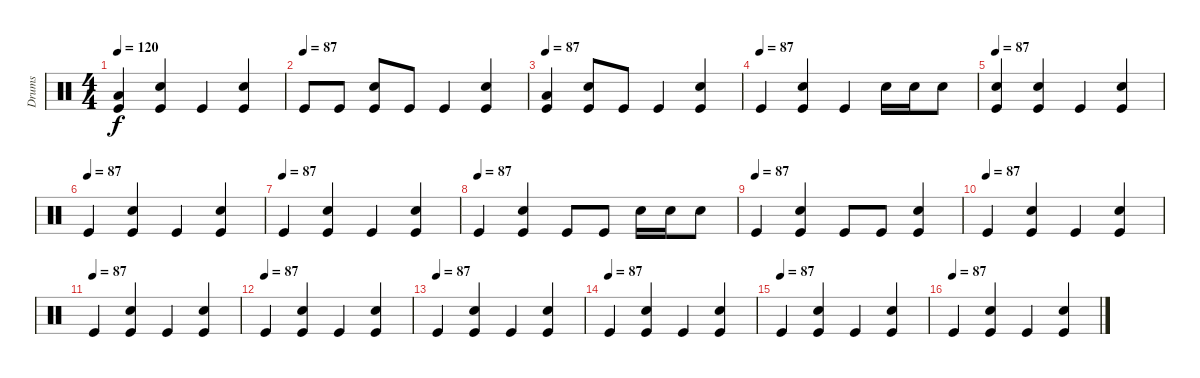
\track ("Drums" "Drums") {instrument percussion}
\staff {score}
\articulation defaults
\ts (4 4)
\tempo 120
\tempo 87
\tempo 120
\clef neutral
\ks c
("Low Floor Tom (hit)" "Kick (hit)").4{dy f} ("Snare (hit) 2" "Kick (hit)").4 "Kick (hit)".4 ("Snare (hit) 2" "Kick (hit)").4 |
\tempo (87)
"Kick (hit)".8 "Kick (hit)".8 ("Snare (hit) 2" "Kick (hit)").8 "Kick (hit)".8 "Kick (hit)".4 ("Snare (hit) 2" "Kick (hit)").4 |
\tempo 87
("Low Floor Tom (hit)" "Kick (hit)").4 ("Snare (hit) 2" "Kick (hit)").8 "Kick (hit)".8 "Kick (hit)".4 ("Snare (hit) 2" "Kick (hit)").4 |
\tempo (87)
"Kick (hit)".4 ("Snare (hit) 2" "Kick (hit)").4 "Kick (hit)".4 "Snare (hit) 2".16 "Snare (hit) 2".16 "Snare (hit) 2".8 |
\tempo 87
("Snare (hit) 2" "Kick (hit)").4 ("Snare (hit) 2" "Kick (hit)").4 "Kick (hit)".4 ("Snare (hit) 2" "Kick (hit)").4 |
\tempo (87)
"Kick (hit)".4 ("Snare (hit) 2" "Kick (hit)").4 "Kick (hit)".4 ("Snare (hit) 2" "Kick (hit)").4 |
\tempo (87)
"Kick (hit)".4 ("Snare (hit) 2" "Kick (hit)").4 "Kick (hit)".4 ("Snare (hit) 2" "Kick (hit)").4 |
\tempo (87)
"Kick (hit)".4 ("Snare (hit) 2" "Kick (hit)").4 "Kick (hit)".8 "Kick (hit)".8 "Snare (hit) 2".16 "Snare (hit) 2".16 "Snare (hit) 2".8 |
\tempo (87)
"Kick (hit)".4 ("Snare (hit) 2" "Kick (hit)").4 "Kick (hit)".8 "Kick (hit)".8 ("Snare (hit) 2" "Kick (hit)").4 |
\tempo (87)
"Kick (hit)".4 ("Snare (hit) 2" "Kick (hit)").4 "Kick (hit)".4 ("Snare (hit) 2" "Kick (hit)").4 |
\tempo (87)
"Kick (hit)".4 ("Snare (hit) 2" "Kick (hit)").4 "Kick (hit)".4 ("Snare (hit) 2" "Kick (hit)").4 |
\tempo (87)
"Kick (hit)".4 ("Snare (hit) 2" "Kick (hit)").4 "Kick (hit)".4 ("Snare (hit) 2" "Kick (hit)").4 |
\tempo (87)
"Kick (hit)".4 ("Snare (hit) 2" "Kick (hit)").4 "Kick (hit)".4 ("Snare (hit) 2" "Kick (hit)").4 |
\tempo (87)
"Kick (hit)".4 ("Snare (hit) 2" "Kick (hit)").4 "Kick (hit)".4 ("Snare (hit) 2" "Kick (hit)").4 |
\tempo (87)
"Kick (hit)".4 ("Snare (hit) 2" "Kick (hit)").4 "Kick (hit)".4 ("Snare (hit) 2" "Kick (hit)").4 |
\tempo (87)
"Kick (hit)".4 ("Snare (hit) 2" "Kick (hit)").4 "Kick (hit)".4 ("Snare (hit) 2" "Kick (hit)").4
